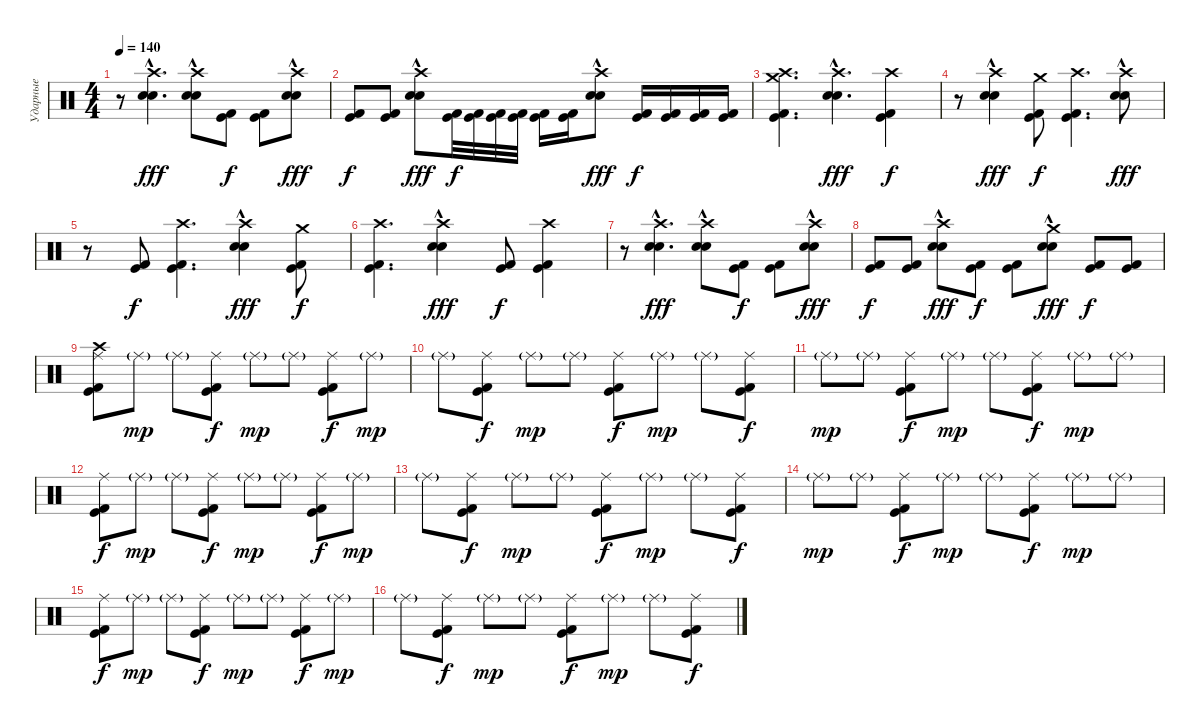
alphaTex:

\track ("Ударные" "Ударные") {instrument percussion}
\staff {score}
\articulation defaults
\ts (4 4)
\tempo 140
\clef neutral
\ks c
r.8{dy f} ("Crash high (hit)" "Snare (hit) 2"{hac} "Electric Snare (hit)"{hac}).4{d dy fff} ("Crash high (hit)" "Snare (hit) 2"{hac} "Electric Snare (hit)"{hac}).8 ("Kick (hit)" "Kick (hit) 2").8{dy f} ("Kick (hit)" "Kick (hit) 2").8 ("Crash high (hit)" "Snare (hit) 2"{hac} "Electric Snare (hit)"{hac}).8{dy fff} |
("Kick (hit)" "Kick (hit) 2").8{dy f} ("Kick (hit)" "Kick (hit) 2").8 ("Crash high (hit)" "Snare (hit) 2"{hac} "Electric Snare (hit)"{hac}).8{dy fff} ("Kick (hit)" "Kick (hit) 2").32{dy f} ("Kick (hit)" "Kick (hit) 2").32 ("Kick (hit)" "Kick (hit) 2").32 ("Kick (hit)" "Kick (hit) 2").32 ("Kick (hit)" "Kick (hit) 2").16 ("Kick (hit)" "Kick (hit) 2").16 ("Crash high (hit)" "Snare (hit) 2"{hac} "Electric Snare (hit)"{hac}).8{dy fff} ("Kick (hit)" "Kick (hit) 2").16{dy f} ("Kick (hit)" "Kick (hit) 2").16 ("Kick (hit)" "Kick (hit) 2").16 ("Kick (hit)" "Kick (hit) 2").16 |
("Crash high (hit)" "Kick (hit)" "Kick (hit) 2" "Crash medium (hit)").4{d} ("Crash high (hit)" "Snare (hit) 2"{hac} "Electric Snare (hit)"{hac}).4{d dy fff} ("Crash high (hit)" "Kick (hit)" "Kick (hit) 2").4{dy f} |
r.8 ("Crash high (hit)" "Snare (hit) 2"{hac} "Electric Snare (hit)"{hac}).4{dy fff} ("Crash medium (hit)" "Kick (hit)" "Kick (hit) 2").8{dy f} ("Crash high (hit)" "Kick (hit)" "Kick (hit) 2").4{d} ("Crash high (hit)" "Snare (hit) 2"{hac} "Electric Snare (hit)"{hac}).8{dy fff} |
r.8 ("Kick (hit)" "Kick (hit) 2").8{dy f} ("Crash high (hit)" "Kick (hit)" "Kick (hit) 2").4{d} ("Crash high (hit)" "Snare (hit) 2"{hac} "Electric Snare (hit)"{hac}).4{dy fff} ("Crash medium (hit)" "Kick (hit)" "Kick (hit) 2").8{dy f} |
("Crash high (hit)" "Kick (hit)" "Kick (hit) 2").4{d} ("Crash high (hit)" "Snare (hit) 2"{hac} "Electric Snare (hit)"{hac}).4{dy fff} ("Kick (hit)" "Kick (hit) 2").8{dy f} ("Crash high (hit)" "Kick (hit)" "Kick (hit) 2").4 |
r.8 ("Crash high (hit)" "Snare (hit) 2"{hac} "Electric Snare (hit)"{hac}).4{d dy fff} ("Crash high (hit)" "Snare (hit) 2"{hac} "Electric Snare (hit)"{hac}).8 ("Kick (hit)" "Kick (hit) 2").8{dy f} ("Kick (hit)" "Kick (hit) 2").8 ("Crash high (hit)" "Snare (hit) 2"{hac} "Electric Snare (hit)"{hac}).8{dy fff} |
("Kick (hit)" "Kick (hit) 2").8{dy f} ("Kick (hit)" "Kick (hit) 2").8 ("Crash high (hit)" "Snare (hit) 2"{hac} "Electric Snare (hit)"{hac}).8{dy fff} ("Kick (hit)" "Kick (hit) 2").8{dy f} ("Kick (hit)" "Kick (hit) 2").8 ("Crash medium (hit)" "Snare (hit) 2"{hac} "Electric Snare (hit)"{hac}).8{dy fff} ("Kick (hit)" "Kick (hit) 2").8{dy f} ("Kick (hit)" "Kick (hit) 2").8 |
("Ride (middle)" "Kick (hit)" "Kick (hit) 2" "Crash high (hit)").8 "Ride (middle)"{g}.8{dy mp} "Ride (middle)"{g}.8 ("Ride (middle)" "Kick (hit)" "Kick (hit) 2").8{dy f} "Ride (middle)"{g}.8{dy mp} "Ride (middle)"{g}.8 ("Ride (middle)" "Kick (hit)" "Kick (hit) 2").8{dy f} "Ride (middle)"{g}.8{dy mp} |
"Ride (middle)"{g}.8 ("Ride (middle)" "Kick (hit)" "Kick (hit) 2").8{dy f} "Ride (middle)"{g}.8{dy mp} "Ride (middle)"{g}.8 ("Ride (middle)" "Kick (hit)" "Kick (hit) 2").8{dy f} "Ride (middle)"{g}.8{dy mp} "Ride (middle)"{g}.8 ("Ride (middle)" "Kick (hit)" "Kick (hit) 2").8{dy f} |
"Ride (middle)"{g}.8{dy mp} "Ride (middle)"{g}.8 ("Ride (middle)" "Kick (hit)" "Kick (hit) 2").8{dy f} "Ride (middle)"{g}.8{dy mp} "Ride (middle)"{g}.8 ("Ride (middle)" "Kick (hit)" "Kick (hit) 2").8{dy f} "Ride (middle)"{g}.8{dy mp} "Ride (middle)"{g}.8 |
("Ride (middle)" "Kick (hit)" "Kick (hit) 2").8{dy f} "Ride (middle)"{g}.8{dy mp} "Ride (middle)"{g}.8 ("Ride (middle)" "Kick (hit)" "Kick (hit) 2").8{dy f} "Ride (middle)"{g}.8{dy mp} "Ride (middle)"{g}.8 ("Ride (middle)" "Kick (hit)" "Kick (hit) 2").8{dy f} "Ride (middle)"{g}.8{dy mp} |
"Ride (middle)"{g}.8 ("Ride (middle)" "Kick (hit)" "Kick (hit) 2").8{dy f} "Ride (middle)"{g}.8{dy mp} "Ride (middle)"{g}.8 ("Ride (middle)" "Kick (hit)" "Kick (hit) 2").8{dy f} "Ride (middle)"{g}.8{dy mp} "Ride (middle)"{g}.8 ("Ride (middle)" "Kick (hit)" "Kick (hit) 2").8{dy f} |
"Ride (middle)"{g}.8{dy mp} "Ride (middle)"{g}.8 ("Ride (middle)" "Kick (hit)" "Kick (hit) 2").8{dy f} "Ride (middle)"{g}.8{dy mp} "Ride (middle)"{g}.8 ("Ride (middle)" "Kick (hit)" "Kick (hit) 2").8{dy f} "Ride (middle)"{g}.8{dy mp} "Ride (middle)"{g}.8 |
("Ride (middle)" "Kick (hit)" "Kick (hit) 2").8{dy f} "Ride (middle)"{g}.8{dy mp} "Ride (middle)"{g}.8 ("Ride (middle)" "Kick (hit)" "Kick (hit) 2").8{dy f} "Ride (middle)"{g}.8{dy mp} "Ride (middle)"{g}.8 ("Ride (middle)" "Kick (hit)" "Kick (hit) 2").8{dy f} "Ride (middle)"{g}.8{dy mp} |
"Ride (middle)"{g}.8 ("Ride (middle)" "Kick (hit)" "Kick (hit) 2").8{dy f} "Ride (middle)"{g}.8{dy mp} "Ride (middle)"{g}.8 ("Ride (middle)" "Kick (hit)" "Kick (hit) 2").8{dy f} "Ride (middle)"{g}.8{dy mp} "Ride (middle)"{g}.8 ("Ride (middle)" "Kick (hit)" "Kick (hit) 2").8{dy f}
